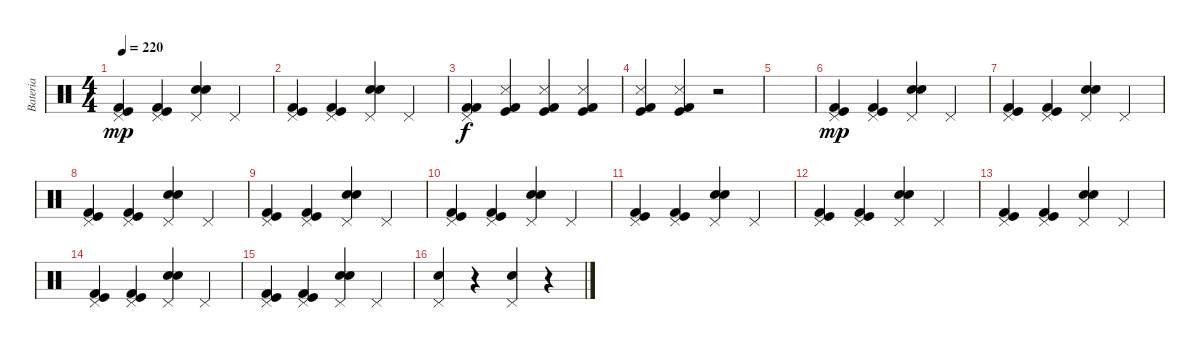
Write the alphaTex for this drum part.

\track ("Bateria" "Bateria") {instrument percussion}
\staff {score}
\articulation defaults
\ts (4 4)
\tempo 220
\clef neutral
\ks c
("Pedal Hi-Hat (hit)" "Kick (hit) 2" "Kick (hit)").4{dy mp} ("Pedal Hi-Hat (hit)" "Kick (hit) 2" "Kick (hit)").4 ("Pedal Hi-Hat (hit)" "Snare (hit) 2" "Electric Snare (hit)").4 "Pedal Hi-Hat (hit)".4 |
("Pedal Hi-Hat (hit)" "Kick (hit) 2" "Kick (hit)").4 ("Pedal Hi-Hat (hit)" "Kick (hit) 2" "Kick (hit)").4 ("Pedal Hi-Hat (hit)" "Snare (hit) 2" "Electric Snare (hit)").4 "Pedal Hi-Hat (hit)".4 |
("Pedal Hi-Hat (hit)" "Kick (hit) 2" "Kick (hit) 2").4{dy f} ("Kick (hit)" "Snare (side stick) 3" "Kick (hit) 2").4 ("Kick (hit)" "Snare (side stick) 3" "Kick (hit) 2").4 ("Kick (hit)" "Snare (side stick) 3" "Kick (hit) 2").4 |
("Kick (hit)" "Snare (side stick) 3" "Kick (hit) 2").4 ("Kick (hit)" "Snare (side stick) 3" "Kick (hit) 2").4 r.2 |
|
("Pedal Hi-Hat (hit)" "Kick (hit) 2" "Kick (hit)").4{dy mp} ("Pedal Hi-Hat (hit)" "Kick (hit) 2" "Kick (hit)").4 ("Pedal Hi-Hat (hit)" "Snare (hit) 2" "Electric Snare (hit)").4 "Pedal Hi-Hat (hit)".4 |
("Pedal Hi-Hat (hit)" "Kick (hit) 2" "Kick (hit)").4 ("Pedal Hi-Hat (hit)" "Kick (hit) 2" "Kick (hit)").4 ("Pedal Hi-Hat (hit)" "Snare (hit) 2" "Electric Snare (hit)").4 "Pedal Hi-Hat (hit)".4 |
("Pedal Hi-Hat (hit)" "Kick (hit) 2" "Kick (hit)").4 ("Pedal Hi-Hat (hit)" "Kick (hit) 2" "Kick (hit)").4 ("Pedal Hi-Hat (hit)" "Snare (hit) 2" "Electric Snare (hit)").4 "Pedal Hi-Hat (hit)".4 |
("Pedal Hi-Hat (hit)" "Kick (hit) 2" "Kick (hit)").4 ("Pedal Hi-Hat (hit)" "Kick (hit) 2" "Kick (hit)").4 ("Pedal Hi-Hat (hit)" "Snare (hit) 2" "Electric Snare (hit)").4 "Pedal Hi-Hat (hit)".4 |
("Pedal Hi-Hat (hit)" "Kick (hit) 2" "Kick (hit)").4 ("Pedal Hi-Hat (hit)" "Kick (hit) 2" "Kick (hit)").4 ("Pedal Hi-Hat (hit)" "Snare (hit) 2" "Electric Snare (hit)").4 "Pedal Hi-Hat (hit)".4 |
("Pedal Hi-Hat (hit)" "Kick (hit) 2" "Kick (hit)").4 ("Pedal Hi-Hat (hit)" "Kick (hit) 2" "Kick (hit)").4 ("Pedal Hi-Hat (hit)" "Snare (hit) 2" "Electric Snare (hit)").4 "Pedal Hi-Hat (hit)".4 |
("Pedal Hi-Hat (hit)" "Kick (hit) 2" "Kick (hit)").4 ("Pedal Hi-Hat (hit)" "Kick (hit) 2" "Kick (hit)").4 ("Pedal Hi-Hat (hit)" "Snare (hit) 2" "Electric Snare (hit)").4 "Pedal Hi-Hat (hit)".4 |
("Pedal Hi-Hat (hit)" "Kick (hit) 2" "Kick (hit)").4 ("Pedal Hi-Hat (hit)" "Kick (hit) 2" "Kick (hit)").4 ("Pedal Hi-Hat (hit)" "Snare (hit) 2" "Electric Snare (hit)").4 "Pedal Hi-Hat (hit)".4 |
("Pedal Hi-Hat (hit)" "Kick (hit) 2" "Kick (hit)").4 ("Pedal Hi-Hat (hit)" "Kick (hit) 2" "Kick (hit)").4 ("Pedal Hi-Hat (hit)" "Snare (hit) 2" "Electric Snare (hit)").4 "Pedal Hi-Hat (hit)".4 |
("Pedal Hi-Hat (hit)" "Kick (hit) 2" "Kick (hit)").4 ("Pedal Hi-Hat (hit)" "Kick (hit) 2" "Kick (hit)").4 ("Pedal Hi-Hat (hit)" "Snare (hit) 2" "Electric Snare (hit)").4 "Pedal Hi-Hat (hit)".4 |
("Pedal Hi-Hat (hit)" "Snare (hit) 2").4 r.4 ("Pedal Hi-Hat (hit)" "Snare (hit) 2").4 r.4
